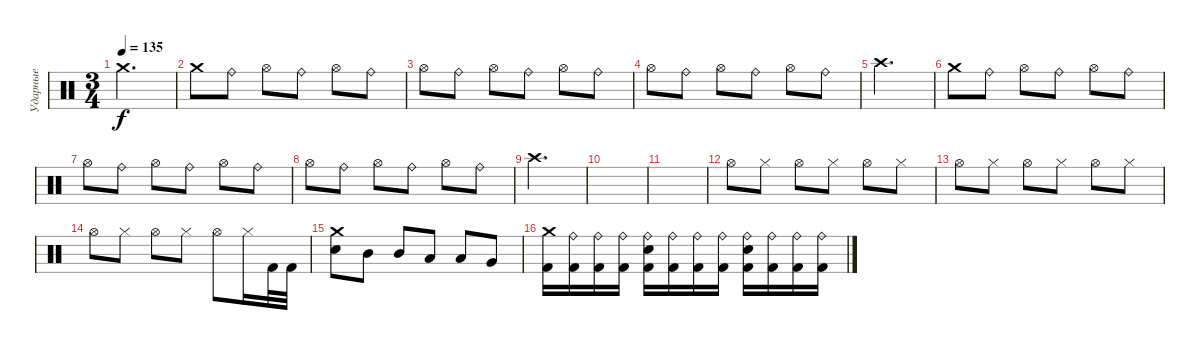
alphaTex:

\track ("Ударные" "Ударные") {instrument percussion}
\staff {score}
\articulation defaults
\ts (3 4)
\tempo 135
\clef neutral
\ks c "Crash medium (hit)".2{d dy f}
|
"Crash medium (hit)".8 "Ride (bell)".8 "Hi-Hat (open)".8 "Ride (bell)".8 "Hi-Hat (open)".8 "Ride (bell)".8 |
"Hi-Hat (open)".8 "Ride (bell)".8 "Hi-Hat (open)".8 "Ride (bell)".8 "Hi-Hat (open)".8 "Ride (bell)".8 |
"Hi-Hat (open)".8 "Ride (bell)".8 "Hi-Hat (open)".8 "Ride (bell)".8 "Hi-Hat (open)".8 "Ride (bell)".8 |
"Crash high (hit)".2{d} |
"Crash medium (hit)".8 "Ride (bell)".8 "Hi-Hat (open)".8 "Ride (bell)".8 "Hi-Hat (open)".8 "Ride (bell)".8 |
"Hi-Hat (open)".8 "Ride (bell)".8 "Hi-Hat (open)".8 "Ride (bell)".8 "Hi-Hat (open)".8 "Ride (bell)".8 |
"Hi-Hat (open)".8 "Ride (bell)".8 "Hi-Hat (open)".8 "Ride (bell)".8 "Hi-Hat (open)".8 "Ride (bell)".8 |
"Crash high (hit)".2{d} |
|
|
"Hi-Hat (open)".8 "Hi-Hat (closed)".8 "Hi-Hat (open)".8 "Hi-Hat (closed)".8 "Hi-Hat (open)".8 "Hi-Hat (closed)".8 |
"Hi-Hat (open)".8 "Hi-Hat (closed)".8 "Hi-Hat (open)".8 "Hi-Hat (closed)".8 "Hi-Hat (open)".8 "Hi-Hat (closed)".8 |
"Hi-Hat (open)".8 "Hi-Hat (closed)".8 "Hi-Hat (open)".8 "Hi-Hat (closed)".8 "Hi-Hat (open)".8 "Hi-Hat (closed)".16 "Kick (hit) 2".32 "Kick (hit) 2".32 |
("Crash medium (hit)" "Electric Snare (hit)").8 "Mid Tom (hit)".8 "Mid Tom (hit)".8 "Low Tom (hit)".8 "Low Tom (hit)".8 "Very Low Tom (hit)".8 |
("Crash medium (hit)" "Kick (hit) 2").16 ("Ride (bell)" "Kick (hit) 2").16 ("Ride (bell)" "Kick (hit) 2").16 ("Ride (bell)" "Kick (hit) 2").16 ("Ride (bell)" "Electric Snare (hit)" "Kick (hit) 2").16 ("Ride (bell)" "Kick (hit) 2").16 ("Ride (bell)" "Kick (hit) 2").16 ("Ride (bell)" "Kick (hit) 2").16 ("Ride (bell)" "Electric Snare (hit)" "Kick (hit) 2").16 ("Ride (bell)" "Kick (hit) 2").16 ("Ride (bell)" "Kick (hit) 2").16 ("Ride (bell)" "Kick (hit) 2").16
